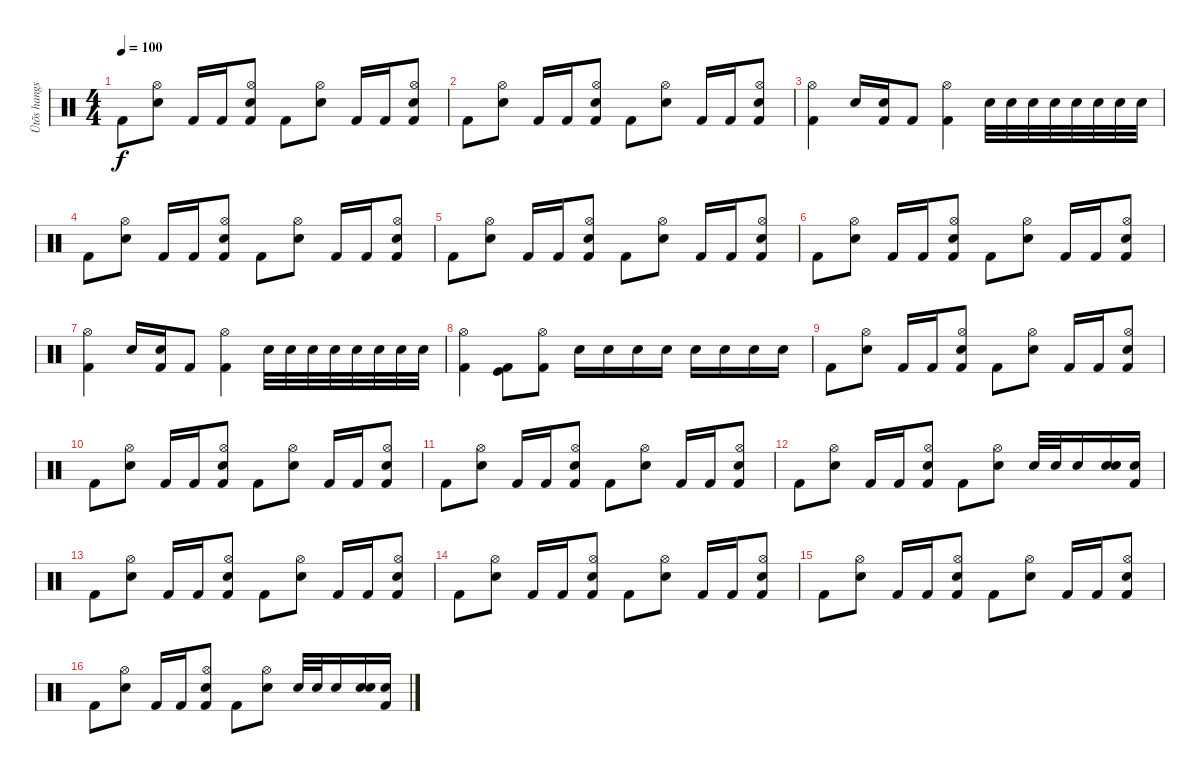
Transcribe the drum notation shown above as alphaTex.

\track ("Ütõs hangszer" "Ütõs hangs") {instrument percussion}
\staff {score}
\articulation defaults
\ts (4 4)
\tempo 100
\clef neutral
\ks c "Kick (hit) 2".8{dy f}
("Hi-Hat (open)" "Snare (hit) 2").8 "Kick (hit) 2".16 "Kick (hit) 2".16 ("Hi-Hat (open)" "Kick (hit) 2" "Snare (hit) 2").8 "Kick (hit) 2".8 ("Hi-Hat (open)" "Snare (hit) 2").8 "Kick (hit) 2".16 "Kick (hit) 2".16 ("Hi-Hat (open)" "Kick (hit) 2" "Snare (hit) 2").8 |
"Kick (hit) 2".8 ("Hi-Hat (open)" "Snare (hit) 2").8 "Kick (hit) 2".16 "Kick (hit) 2".16 ("Hi-Hat (open)" "Kick (hit) 2" "Snare (hit) 2").8 "Kick (hit) 2".8 ("Hi-Hat (open)" "Snare (hit) 2").8 "Kick (hit) 2".16 "Kick (hit) 2".16 ("Hi-Hat (open)" "Kick (hit) 2" "Snare (hit) 2").8 |
("Kick (hit) 2" "Hi-Hat (open)").4 "Snare (hit) 2".16 ("Kick (hit) 2" "Snare (hit) 2").16 "Kick (hit) 2".8 ("Kick (hit) 2" "Hi-Hat (open)").4 "Snare (hit) 2".32 "Snare (hit) 2".32 "Snare (hit) 2".32 "Snare (hit) 2".32 "Snare (hit) 2".32 "Snare (hit) 2".32 "Snare (hit) 2".32 "Snare (hit) 2".32 |
"Kick (hit) 2".8 ("Hi-Hat (open)" "Snare (hit) 2").8 "Kick (hit) 2".16 "Kick (hit) 2".16 ("Hi-Hat (open)" "Kick (hit) 2" "Snare (hit) 2").8 "Kick (hit) 2".8 ("Hi-Hat (open)" "Snare (hit) 2").8 "Kick (hit) 2".16 "Kick (hit) 2".16 ("Hi-Hat (open)" "Kick (hit) 2" "Snare (hit) 2").8 |
"Kick (hit) 2".8 ("Hi-Hat (open)" "Snare (hit) 2").8 "Kick (hit) 2".16 "Kick (hit) 2".16 ("Hi-Hat (open)" "Kick (hit) 2" "Snare (hit) 2").8 "Kick (hit) 2".8 ("Hi-Hat (open)" "Snare (hit) 2").8 "Kick (hit) 2".16 "Kick (hit) 2".16 ("Hi-Hat (open)" "Kick (hit) 2" "Snare (hit) 2").8 |
"Kick (hit) 2".8 ("Hi-Hat (open)" "Snare (hit) 2").8 "Kick (hit) 2".16 "Kick (hit) 2".16 ("Hi-Hat (open)" "Kick (hit) 2" "Snare (hit) 2").8 "Kick (hit) 2".8 ("Hi-Hat (open)" "Snare (hit) 2").8 "Kick (hit) 2".16 "Kick (hit) 2".16 ("Hi-Hat (open)" "Kick (hit) 2" "Snare (hit) 2").8 |
("Kick (hit) 2" "Hi-Hat (open)").4 "Snare (hit) 2".16 ("Kick (hit) 2" "Snare (hit) 2").16 "Kick (hit) 2".8 ("Kick (hit) 2" "Hi-Hat (open)").4 "Snare (hit) 2".32 "Snare (hit) 2".32 "Snare (hit) 2".32 "Snare (hit) 2".32 "Snare (hit) 2".32 "Snare (hit) 2".32 "Snare (hit) 2".32 "Snare (hit) 2".32 |
("Kick (hit) 2" "Hi-Hat (open)").4 ("Kick (hit) 2" "Kick (hit)").8 ("Kick (hit) 2" "Hi-Hat (open)").8 "Snare (hit) 2".16 "Snare (hit) 2".16 "Snare (hit) 2".16 "Snare (hit) 2".16 "Snare (hit) 2".16 "Snare (hit) 2".16 "Snare (hit) 2".16 "Snare (hit) 2".16 |
"Kick (hit) 2".8 ("Hi-Hat (open)" "Snare (hit) 2").8 "Kick (hit) 2".16 "Kick (hit) 2".16 ("Hi-Hat (open)" "Kick (hit) 2" "Snare (hit) 2").8 "Kick (hit) 2".8 ("Hi-Hat (open)" "Snare (hit) 2").8 "Kick (hit) 2".16 "Kick (hit) 2".16 ("Hi-Hat (open)" "Kick (hit) 2" "Snare (hit) 2").8 |
"Kick (hit) 2".8 ("Hi-Hat (open)" "Snare (hit) 2").8 "Kick (hit) 2".16 "Kick (hit) 2".16 ("Hi-Hat (open)" "Kick (hit) 2" "Snare (hit) 2").8 "Kick (hit) 2".8 ("Hi-Hat (open)" "Snare (hit) 2").8 "Kick (hit) 2".16 "Kick (hit) 2".16 ("Hi-Hat (open)" "Kick (hit) 2" "Snare (hit) 2").8 |
"Kick (hit) 2".8 ("Hi-Hat (open)" "Snare (hit) 2").8 "Kick (hit) 2".16 "Kick (hit) 2".16 ("Hi-Hat (open)" "Kick (hit) 2" "Snare (hit) 2").8 "Kick (hit) 2".8 ("Hi-Hat (open)" "Snare (hit) 2").8 "Kick (hit) 2".16 "Kick (hit) 2".16 ("Hi-Hat (open)" "Kick (hit) 2" "Snare (hit) 2").8 |
"Kick (hit) 2".8 ("Hi-Hat (open)" "Snare (hit) 2").8 "Kick (hit) 2".16 "Kick (hit) 2".16 ("Hi-Hat (open)" "Kick (hit) 2" "Snare (hit) 2").8 "Kick (hit) 2".8 ("Hi-Hat (open)" "Snare (hit) 2").8 "Snare (hit) 2".32 "Snare (hit) 2".32 "Snare (hit) 2".16 ("Snare (hit) 2" "Snare (hit) 2").16 ("Kick (hit) 2" "Snare (hit) 2").16 |
"Kick (hit) 2".8 ("Hi-Hat (open)" "Snare (hit) 2").8 "Kick (hit) 2".16 "Kick (hit) 2".16 ("Hi-Hat (open)" "Kick (hit) 2" "Snare (hit) 2").8 "Kick (hit) 2".8 ("Hi-Hat (open)" "Snare (hit) 2").8 "Kick (hit) 2".16 "Kick (hit) 2".16 ("Hi-Hat (open)" "Kick (hit) 2" "Snare (hit) 2").8 |
"Kick (hit) 2".8 ("Hi-Hat (open)" "Snare (hit) 2").8 "Kick (hit) 2".16 "Kick (hit) 2".16 ("Hi-Hat (open)" "Kick (hit) 2" "Snare (hit) 2").8 "Kick (hit) 2".8 ("Hi-Hat (open)" "Snare (hit) 2").8 "Kick (hit) 2".16 "Kick (hit) 2".16 ("Hi-Hat (open)" "Kick (hit) 2" "Snare (hit) 2").8 |
"Kick (hit) 2".8 ("Hi-Hat (open)" "Snare (hit) 2").8 "Kick (hit) 2".16 "Kick (hit) 2".16 ("Hi-Hat (open)" "Kick (hit) 2" "Snare (hit) 2").8 "Kick (hit) 2".8 ("Hi-Hat (open)" "Snare (hit) 2").8 "Kick (hit) 2".16 "Kick (hit) 2".16 ("Hi-Hat (open)" "Kick (hit) 2" "Snare (hit) 2").8 |
"Kick (hit) 2".8 ("Hi-Hat (open)" "Snare (hit) 2").8 "Kick (hit) 2".16 "Kick (hit) 2".16 ("Hi-Hat (open)" "Kick (hit) 2" "Snare (hit) 2").8 "Kick (hit) 2".8 ("Hi-Hat (open)" "Snare (hit) 2").8 "Snare (hit) 2".32 "Snare (hit) 2".32 "Snare (hit) 2".16 ("Snare (hit) 2" "Snare (hit) 2").16 ("Kick (hit) 2" "Snare (hit) 2").16
